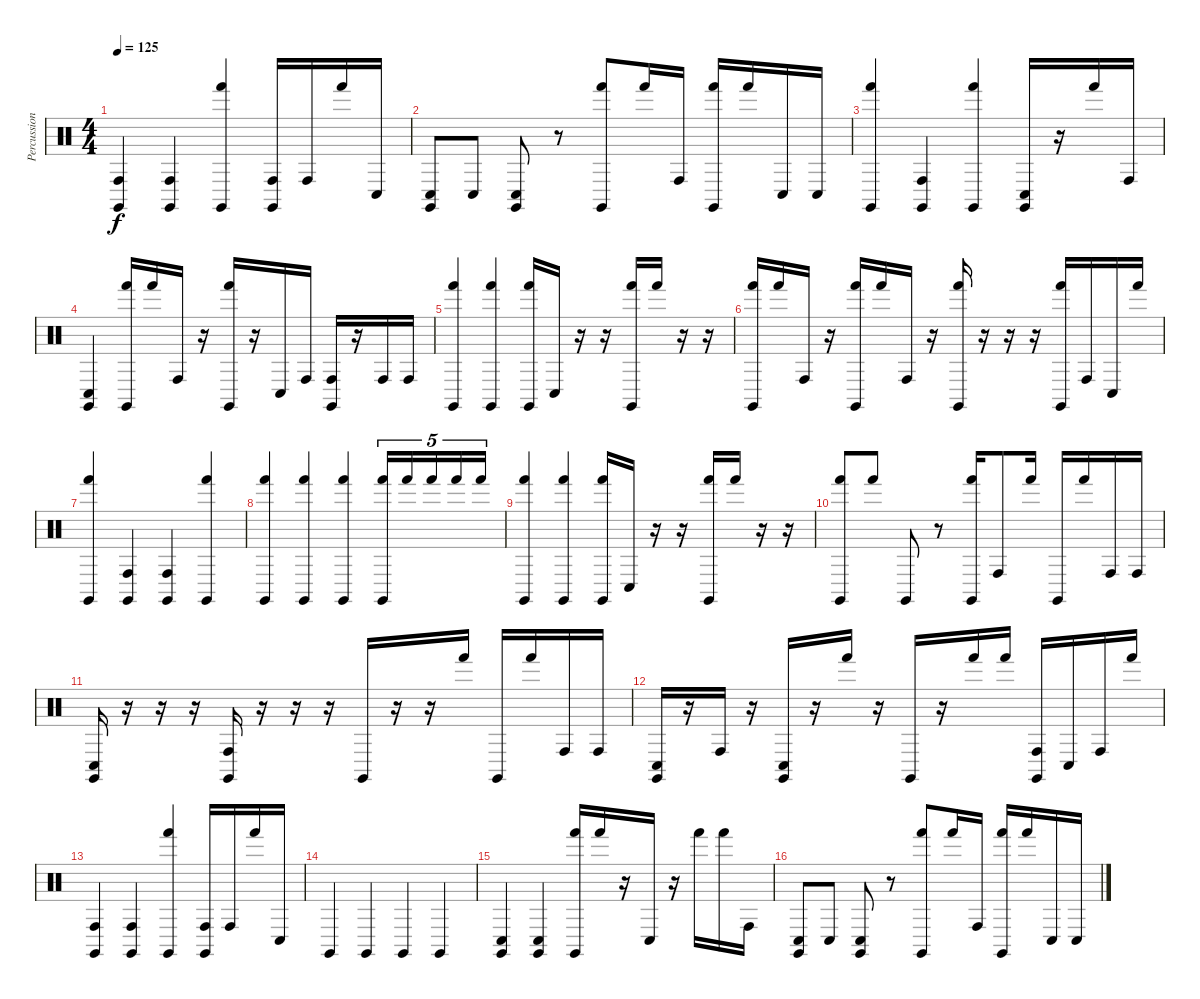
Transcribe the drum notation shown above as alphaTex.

\track ("Percussion" "Percussion") {instrument percussion}
\staff {score}
\articulation defaults
\ts (4 4)
\tempo 125
\clef neutral
\ks c
("Claves (hit)" "Conga high (hit)").4{dy f} ("Claves (hit)" "Conga high (hit)").4 ("Claves (hit)" "Hand (hit)").4 ("Claves (hit)" "Conga high (hit)").16 "Conga high (hit)".16 "Hand (hit)".16 "Conga low (hit)".16 |
("Claves (hit)" "Conga low (hit)").8 "Conga low (hit)".8 ("Claves (hit)" "Conga low (hit)").8 r.8 ("Claves (hit)" "Hand (hit)").8 "Hand (hit)".16 "Conga high (hit)".16 ("Claves (hit)" "Hand (hit)").16 "Hand (hit)".16 "Conga low (hit)".16 "Conga low (hit)".16 |
("Claves (hit)" "Hand (hit)").4 ("Claves (hit)" "Conga high (hit)").4 ("Claves (hit)" "Hand (hit)").4 ("Claves (hit)" "Conga low (hit)").16 r.16 "Hand (hit)".16 "Conga high (hit)".16 |
("Claves (hit)" "Conga low (hit)").4 ("Claves (hit)" "Hand (hit)").16 "Hand (hit)".16 "Conga high (hit)".16 r.16 ("Claves (hit)" "Hand (hit)").16 r.16 "Conga low (hit)".16 "Conga high (hit)".16 ("Claves (hit)" "Conga high (hit)").16 r.16 "Conga high (hit)".16 "Conga high (hit)".16 |
("Claves (hit)" "Hand (hit)").4 ("Claves (hit)" "Hand (hit)").4 ("Claves (hit)" "Hand (hit)").16 "Conga low (hit)".16 r.16 r.16 ("Claves (hit)" "Hand (hit)").16 "Hand (hit)".16 r.16 r.16 |
("Claves (hit)" "Hand (hit)").16 "Hand (hit)".16 "Conga high (hit)".16 r.16 ("Claves (hit)" "Hand (hit)").16 "Hand (hit)".16 "Conga high (hit)".16 r.16 ("Claves (hit)" "Hand (hit)").16 r.16 r.16 r.16 ("Claves (hit)" "Hand (hit)").16 "Conga high (hit)".16 "Conga low (hit)".16 "Hand (hit)".16 |
("Claves (hit)" "Hand (hit)").4 ("Claves (hit)" "Conga high (hit)").4 ("Claves (hit)" "Conga high (hit)").4 ("Claves (hit)" "Hand (hit)").4 |
("Claves (hit)" "Hand (hit)").4 ("Claves (hit)" "Hand (hit)").4 ("Claves (hit)" "Hand (hit)").4 ("Claves (hit)" "Hand (hit)").16{tu (5 4)} "Hand (hit)".16{tu (5 4)} "Hand (hit)".16{tu (5 4)} "Hand (hit)".16{tu (5 4)} "Hand (hit)".16{tu (5 4)} |
("Claves (hit)" "Hand (hit)").4 ("Claves (hit)" "Hand (hit)").4 ("Claves (hit)" "Hand (hit)").16 "Conga low (hit)".16 r.16 r.16 ("Claves (hit)" "Hand (hit)").16 "Hand (hit)".16 r.16 r.16 |
("Claves (hit)" "Hand (hit)").8 "Hand (hit)".8 "Claves (hit)".8 r.8 ("Claves (hit)" "Hand (hit)").16 "Conga high (hit)".8 "Hand (hit)".16 "Claves (hit)".16 "Hand (hit)".16 "Conga high (hit)".16 "Conga high (hit)".16 |
("Claves (hit)" "Conga low (hit)").16 r.16 r.16 r.16 ("Claves (hit)" "Conga high (hit)").16 r.16 r.16 r.16 "Claves (hit)".16 r.16 r.16 "Hand (hit)".16 "Claves (hit)".16 "Hand (hit)".16 "Conga high (hit)".16 "Conga high (hit)".16 |
("Claves (hit)" "Conga low (hit)").16 r.16 "Conga high (hit)".16 r.16 ("Claves (hit)" "Conga low (hit)").16 r.16 "Hand (hit)".16 r.16 "Claves (hit)".16 r.16 "Hand (hit)".16 "Hand (hit)".16 ("Claves (hit)" "Conga high (hit)").16 "Conga low (hit)".16 "Conga high (hit)".16 "Hand (hit)".16 |
("Claves (hit)" "Conga high (hit)").4 ("Claves (hit)" "Conga high (hit)").4 ("Claves (hit)" "Hand (hit)").4 ("Claves (hit)" "Conga high (hit)").16 "Conga high (hit)".16 "Hand (hit)".16 "Conga low (hit)".16 |
"Claves (hit)".4 "Claves (hit)".4 "Claves (hit)".4 "Claves (hit)".4 |
("Claves (hit)" "Conga low (hit)").4 ("Claves (hit)" "Conga low (hit)").4 ("Claves (hit)" "Hand (hit)").16 "Hand (hit)".16 r.16 "Conga low (hit)".16 r.16 "Hand (hit)".16 "Hand (hit)".16 "Conga high (hit)".16 |
("Claves (hit)" "Conga low (hit)").8 "Conga low (hit)".8 ("Claves (hit)" "Conga low (hit)").8 r.8 ("Claves (hit)" "Hand (hit)").8 "Hand (hit)".16 "Conga high (hit)".16 ("Claves (hit)" "Hand (hit)").16 "Hand (hit)".16 "Conga low (hit)".16 "Conga low (hit)".16
